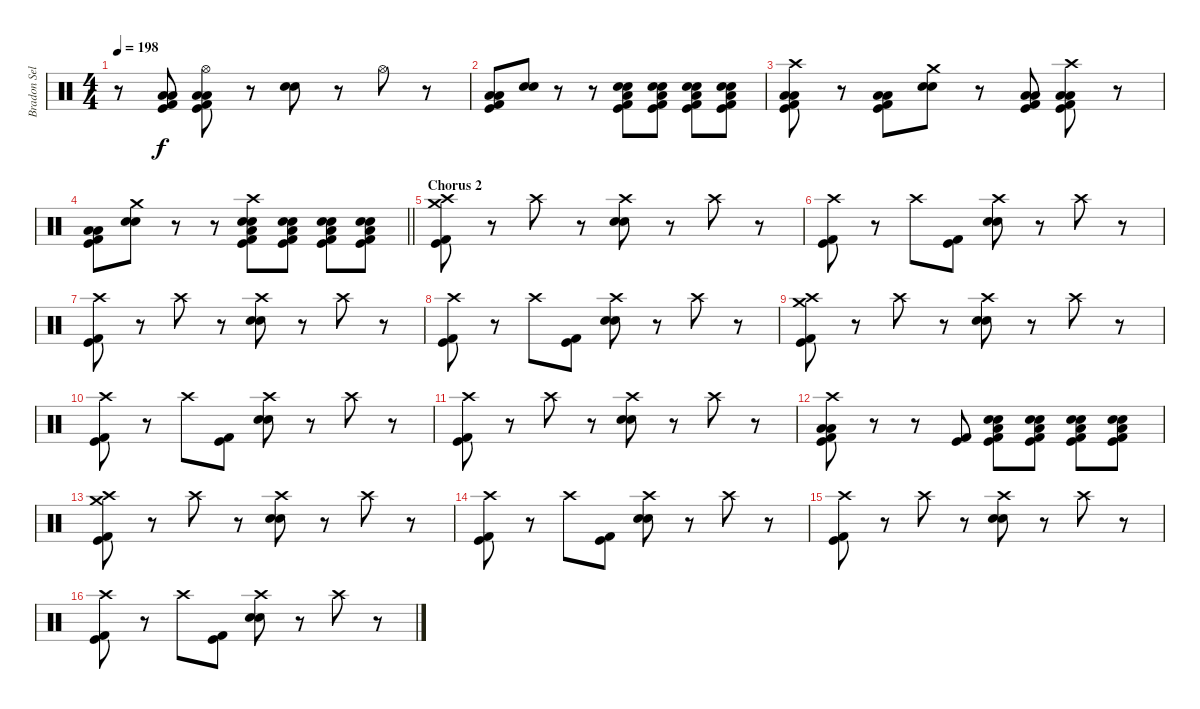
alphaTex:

\track ("Bradon Sellar" "Bradon Sel") {instrument percussion}
\staff {score}
\articulation defaults
\ts (4 4)
\tempo 198
\clef neutral
\ks c
r.8{dy f} ("Low Floor Tom (hit)" "Low Floor Tom (hit)" "Kick (hit) 2" "Kick (hit)").8 ("Hi-Hat (open)" "Low Floor Tom (hit)" "Low Floor Tom (hit)" "Kick (hit) 2" "Kick (hit)").8 r.8 ("Electric Snare (hit)" "Snare (hit) 2").8 r.8 "Hi-Hat (open)".8 r.8 |
("Low Floor Tom (hit)" "Low Floor Tom (hit)" "Kick (hit) 2" "Kick (hit)").8 ("Electric Snare (hit)" "Snare (hit) 2").8 r.8 r.8 ("Snare (hit) 2" "Electric Snare (hit)" "Low Floor Tom (hit)" "Kick (hit) 2" "Kick (hit)").8 ("Snare (hit) 2" "Electric Snare (hit)" "Low Floor Tom (hit)" "Kick (hit) 2" "Kick (hit)").8 ("Snare (hit) 2" "Electric Snare (hit)" "Low Floor Tom (hit)" "Kick (hit) 2" "Kick (hit)").8 ("Snare (hit) 2" "Electric Snare (hit)" "Low Floor Tom (hit)" "Kick (hit) 2" "Kick (hit)").8 |
("Crash high (hit)" "Low Floor Tom (hit)" "Low Floor Tom (hit)" "Kick (hit) 2" "Kick (hit)").8 r.8 ("Low Floor Tom (hit)" "Low Floor Tom (hit)" "Kick (hit) 2" "Kick (hit)").8 ("Crash medium (hit)" "Snare (hit) 2" "Electric Snare (hit)").8 r.8 ("Low Floor Tom (hit)" "Low Floor Tom (hit)" "Kick (hit) 2" "Kick (hit)").8 ("Crash high (hit)" "Low Floor Tom (hit)" "Low Floor Tom (hit)" "Kick (hit) 2" "Kick (hit)").8 r.8 |
\barLineRight lightlight
("Low Floor Tom (hit)" "Low Floor Tom (hit)" "Kick (hit) 2" "Kick (hit)").8 ("Crash medium (hit)" "Electric Snare (hit)" "Snare (hit) 2").8 r.8 r.8 ("Crash high (hit)" "Snare (hit) 2" "Electric Snare (hit)" "Low Floor Tom (hit)" "Kick (hit) 2" "Kick (hit)").8 ("Snare (hit) 2" "Electric Snare (hit)" "Low Floor Tom (hit)" "Kick (hit) 2" "Kick (hit)").8 ("Snare (hit) 2" "Electric Snare (hit)" "Low Floor Tom (hit)" "Kick (hit) 2" "Kick (hit)").8 ("Snare (hit) 2" "Electric Snare (hit)" "Low Floor Tom (hit)" "Kick (hit) 2" "Kick (hit)").8 |
\section ("" "Chorus 2")
("Crash medium (hit)" "Crash high (hit)" "Kick (hit) 2" "Kick (hit)").8 r.8 "Crash high (hit)".8 r.8 ("Crash high (hit)" "Electric Snare (hit)" "Snare (hit) 2").8 r.8 "Crash high (hit)".8 r.8 |
("Crash high (hit)" "Kick (hit) 2" "Kick (hit)").8 r.8 "Crash high (hit)".8 ("Kick (hit) 2" "Kick (hit)").8 ("Crash high (hit)" "Electric Snare (hit)" "Snare (hit) 2").8 r.8 "Crash high (hit)".8 r.8 |
("Crash high (hit)" "Kick (hit) 2" "Kick (hit)").8 r.8 "Crash high (hit)".8 r.8 ("Crash high (hit)" "Electric Snare (hit)" "Snare (hit) 2").8 r.8 "Crash high (hit)".8 r.8 |
("Crash high (hit)" "Kick (hit) 2" "Kick (hit)").8 r.8 "Crash high (hit)".8 ("Kick (hit) 2" "Kick (hit)").8 ("Crash high (hit)" "Electric Snare (hit)" "Snare (hit) 2").8 r.8 "Crash high (hit)".8 r.8 |
("Crash medium (hit)" "Crash high (hit)" "Kick (hit) 2" "Kick (hit)").8 r.8 "Crash high (hit)".8 r.8 ("Crash high (hit)" "Electric Snare (hit)" "Snare (hit) 2").8 r.8 "Crash high (hit)".8 r.8 |
("Crash high (hit)" "Kick (hit) 2" "Kick (hit)").8 r.8 "Crash high (hit)".8 ("Kick (hit) 2" "Kick (hit)").8 ("Crash high (hit)" "Electric Snare (hit)" "Snare (hit) 2").8 r.8 "Crash high (hit)".8 r.8 |
("Crash high (hit)" "Kick (hit) 2" "Kick (hit)").8 r.8 "Crash high (hit)".8 r.8 ("Crash high (hit)" "Electric Snare (hit)" "Snare (hit) 2").8 r.8 "Crash high (hit)".8 r.8 |
("Crash high (hit)" "Low Floor Tom (hit)" "Low Floor Tom (hit)" "Kick (hit)" "Kick (hit) 2").8 r.8 r.8 ("Kick (hit) 2" "Kick (hit)").8 ("Snare (hit) 2" "Electric Snare (hit)" "Low Floor Tom (hit)" "Kick (hit) 2" "Kick (hit)").8 ("Snare (hit) 2" "Electric Snare (hit)" "Low Floor Tom (hit)" "Kick (hit) 2" "Kick (hit)").8 ("Snare (hit) 2" "Electric Snare (hit)" "Low Floor Tom (hit)" "Kick (hit) 2" "Kick (hit)").8 ("Snare (hit) 2" "Electric Snare (hit)" "Low Floor Tom (hit)" "Kick (hit) 2" "Kick (hit)").8 |
("Crash medium (hit)" "Crash high (hit)" "Kick (hit) 2" "Kick (hit)").8 r.8 "Crash high (hit)".8 r.8 ("Crash high (hit)" "Electric Snare (hit)" "Snare (hit) 2").8 r.8 "Crash high (hit)".8 r.8 |
("Crash high (hit)" "Kick (hit) 2" "Kick (hit)").8 r.8 "Crash high (hit)".8 ("Kick (hit) 2" "Kick (hit)").8 ("Crash high (hit)" "Electric Snare (hit)" "Snare (hit) 2").8 r.8 "Crash high (hit)".8 r.8 |
("Crash high (hit)" "Kick (hit) 2" "Kick (hit)").8 r.8 "Crash high (hit)".8 r.8 ("Crash high (hit)" "Electric Snare (hit)" "Snare (hit) 2").8 r.8 "Crash high (hit)".8 r.8 |
("Crash high (hit)" "Kick (hit) 2" "Kick (hit)").8 r.8 "Crash high (hit)".8 ("Kick (hit) 2" "Kick (hit)").8 ("Crash high (hit)" "Electric Snare (hit)" "Snare (hit) 2").8 r.8 "Crash high (hit)".8 r.8
